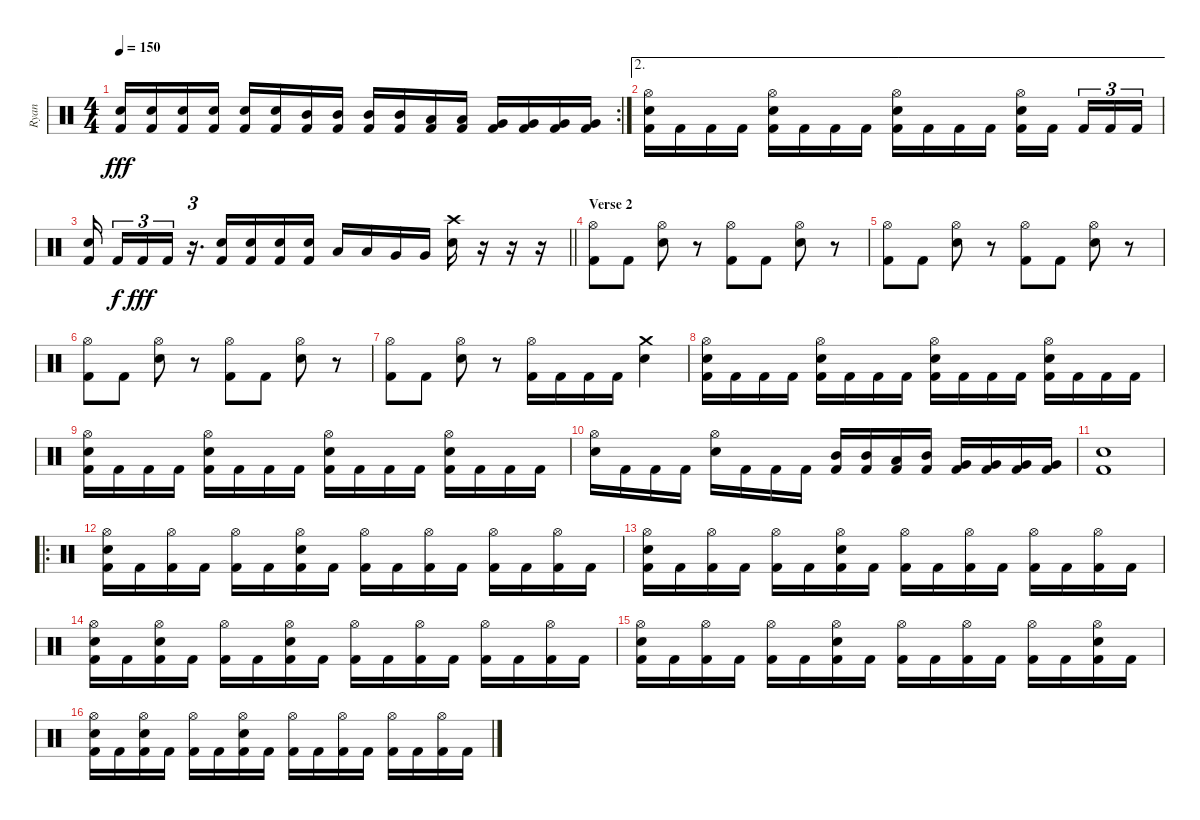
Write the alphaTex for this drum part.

\track ("Ryan" "Ryan") {instrument percussion}
\staff {score}
\articulation defaults
\rc 2
\ts (4 4)
\tempo 150
\clef neutral
\ks c
("Electric Snare (hit)" "Kick (hit) 2").16{dy fff} ("Electric Snare (hit)" "Kick (hit) 2").16 ("Electric Snare (hit)" "Kick (hit) 2").16 ("Electric Snare (hit)" "Kick (hit) 2").16 ("Electric Snare (hit)" "Kick (hit) 2").16 ("Electric Snare (hit)" "Kick (hit) 2").16 ("Mid Tom (hit)" "Kick (hit) 2").16 ("Mid Tom (hit)" "Kick (hit) 2").16 ("Mid Tom (hit)" "Kick (hit) 2").16 ("Mid Tom (hit)" "Kick (hit) 2").16 ("Low Tom (hit)" "Kick (hit) 2").16 ("Low Tom (hit)" "Kick (hit) 2").16 ("Very Low Tom (hit)" "Kick (hit) 2").16 ("Very Low Tom (hit)" "Kick (hit) 2").16 ("Very Low Tom (hit)" "Kick (hit) 2").16 ("Very Low Tom (hit)" "Kick (hit) 2").16 |
\ae 2
("Hi-Hat (open)" "Electric Snare (hit)" "Kick (hit) 2").16 "Kick (hit) 2".16 "Kick (hit) 2".16 "Kick (hit) 2".16 ("Hi-Hat (open)" "Electric Snare (hit)" "Kick (hit) 2").16 "Kick (hit) 2".16 "Kick (hit) 2".16 "Kick (hit) 2".16 ("Hi-Hat (open)" "Electric Snare (hit)" "Kick (hit) 2").16 "Kick (hit) 2".16 "Kick (hit) 2".16 "Kick (hit) 2".16 ("Hi-Hat (open)" "Electric Snare (hit)" "Kick (hit) 2").16 "Kick (hit) 2".16{beam splitsecondary} "Kick (hit) 2".16{tu (3 2)} "Kick (hit) 2".16{tu (3 2)} "Kick (hit) 2".16{tu (3 2)} |
\barLineRight lightlight
("Electric Snare (hit)" "Kick (hit) 2").16{beam splitsecondary} "Kick (hit) 2".16{tu (3 2) dy f} "Kick (hit) 2".16{tu (3 2) dy fff} "Kick (hit) 2".16{tu (3 2)} r.16{d tu (3 2)} ("Electric Snare (hit)" "Kick (hit) 2").16 ("Electric Snare (hit)" "Kick (hit) 2").16 ("Electric Snare (hit)" "Kick (hit) 2").16 ("Electric Snare (hit)" "Kick (hit) 2").16 "Low Tom (hit)".16 "Low Tom (hit)".16 "Very Low Tom (hit)".16 "Very Low Tom (hit)".16 ("Crash high (hit)" "Electric Snare (hit)").16 r.16 r.16 r.16 |
\section ("" "Verse 2")
("Hi-Hat (open)" "Kick (hit) 2").8 "Kick (hit) 2".8 ("Hi-Hat (open)" "Electric Snare (hit)").8 r.8 ("Hi-Hat (open)" "Kick (hit) 2").8 "Kick (hit) 2".8 ("Hi-Hat (open)" "Electric Snare (hit)").8 r.8 |
("Hi-Hat (open)" "Kick (hit) 2").8 "Kick (hit) 2".8 ("Hi-Hat (open)" "Electric Snare (hit)").8 r.8 ("Hi-Hat (open)" "Kick (hit) 2").8 "Kick (hit) 2".8 ("Hi-Hat (open)" "Electric Snare (hit)").8 r.8 |
("Hi-Hat (open)" "Kick (hit) 2").8 "Kick (hit) 2".8 ("Hi-Hat (open)" "Electric Snare (hit)").8 r.8 ("Hi-Hat (open)" "Kick (hit) 2").8 "Kick (hit) 2".8 ("Hi-Hat (open)" "Electric Snare (hit)").8 r.8 |
("Hi-Hat (open)" "Kick (hit) 2").8 "Kick (hit) 2".8 ("Hi-Hat (open)" "Electric Snare (hit)").8 r.8 ("Hi-Hat (open)" "Kick (hit) 2").16 "Kick (hit) 2".16 "Kick (hit) 2".16 "Kick (hit) 2".16 ("Crash medium (hit)" "Electric Snare (hit)").4 |
("Hi-Hat (open)" "Electric Snare (hit)" "Kick (hit) 2").16 "Kick (hit) 2".16 "Kick (hit) 2".16 "Kick (hit) 2".16 ("Hi-Hat (open)" "Electric Snare (hit)" "Kick (hit) 2").16 "Kick (hit) 2".16 "Kick (hit) 2".16 "Kick (hit) 2".16 ("Hi-Hat (open)" "Electric Snare (hit)" "Kick (hit) 2").16 "Kick (hit) 2".16 "Kick (hit) 2".16 "Kick (hit) 2".16 ("Hi-Hat (open)" "Electric Snare (hit)" "Kick (hit) 2").16 "Kick (hit) 2".16 "Kick (hit) 2".16 "Kick (hit) 2".16 |
("Hi-Hat (open)" "Electric Snare (hit)" "Kick (hit) 2").16 "Kick (hit) 2".16 "Kick (hit) 2".16 "Kick (hit) 2".16 ("Hi-Hat (open)" "Electric Snare (hit)" "Kick (hit) 2").16 "Kick (hit) 2".16 "Kick (hit) 2".16 "Kick (hit) 2".16 ("Hi-Hat (open)" "Electric Snare (hit)" "Kick (hit) 2").16 "Kick (hit) 2".16 "Kick (hit) 2".16 "Kick (hit) 2".16 ("Hi-Hat (open)" "Electric Snare (hit)" "Kick (hit) 2").16 "Kick (hit) 2".16 "Kick (hit) 2".16 "Kick (hit) 2".16 |
("Hi-Hat (open)" "Electric Snare (hit)").16 "Kick (hit) 2".16 "Kick (hit) 2".16 "Kick (hit) 2".16 ("Hi-Hat (open)" "Electric Snare (hit)").16 "Kick (hit) 2".16 "Kick (hit) 2".16 "Kick (hit) 2".16 ("Mid Tom (hit)" "Kick (hit) 2").16 ("Mid Tom (hit)" "Kick (hit) 2").16 ("Low Tom (hit)" "Kick (hit) 2").16 ("Mid Tom (hit)" "Kick (hit) 2").16 ("Very Low Tom (hit)" "Kick (hit) 2").16 ("Very Low Tom (hit)" "Kick (hit) 2").16 ("Very Low Tom (hit)" "Kick (hit) 2").16 ("Very Low Tom (hit)" "Kick (hit) 2").16 |
("Electric Snare (hit)" "Kick (hit) 2").1 |
\ro
("Hi-Hat (open)" "Electric Snare (hit)" "Kick (hit) 2").16 "Kick (hit) 2".16 ("Hi-Hat (open)" "Kick (hit) 2").16 "Kick (hit) 2".16 ("Hi-Hat (open)" "Kick (hit) 2").16 "Kick (hit) 2".16 ("Hi-Hat (open)" "Electric Snare (hit)" "Kick (hit) 2").16 "Kick (hit) 2".16 ("Hi-Hat (open)" "Kick (hit) 2").16 "Kick (hit) 2".16 ("Hi-Hat (open)" "Kick (hit) 2").16 "Kick (hit) 2".16 ("Hi-Hat (open)" "Kick (hit) 2").16 "Kick (hit) 2".16 ("Hi-Hat (open)" "Kick (hit) 2").16 "Kick (hit) 2".16 |
("Hi-Hat (open)" "Electric Snare (hit)" "Kick (hit) 2").16 "Kick (hit) 2".16 ("Hi-Hat (open)" "Kick (hit) 2").16 "Kick (hit) 2".16 ("Hi-Hat (open)" "Kick (hit) 2").16 "Kick (hit) 2".16 ("Hi-Hat (open)" "Electric Snare (hit)" "Kick (hit) 2").16 "Kick (hit) 2".16 ("Hi-Hat (open)" "Kick (hit) 2").16 "Kick (hit) 2".16 ("Hi-Hat (open)" "Kick (hit) 2").16 "Kick (hit) 2".16 ("Hi-Hat (open)" "Kick (hit) 2").16 "Kick (hit) 2".16 ("Hi-Hat (open)" "Kick (hit) 2").16 "Kick (hit) 2".16 |
("Hi-Hat (open)" "Electric Snare (hit)" "Kick (hit) 2").16 "Kick (hit) 2".16 ("Hi-Hat (open)" "Electric Snare (hit)" "Kick (hit) 2").16 "Kick (hit) 2".16 ("Hi-Hat (open)" "Kick (hit) 2").16 "Kick (hit) 2".16 ("Hi-Hat (open)" "Electric Snare (hit)" "Kick (hit) 2").16 "Kick (hit) 2".16 ("Hi-Hat (open)" "Kick (hit) 2").16 "Kick (hit) 2".16 ("Hi-Hat (open)" "Kick (hit) 2").16 "Kick (hit) 2".16 ("Hi-Hat (open)" "Kick (hit) 2").16 "Kick (hit) 2".16 ("Hi-Hat (open)" "Kick (hit) 2").16 "Kick (hit) 2".16 |
("Hi-Hat (open)" "Electric Snare (hit)" "Kick (hit) 2").16 "Kick (hit) 2".16 ("Hi-Hat (open)" "Kick (hit) 2").16 "Kick (hit) 2".16 ("Hi-Hat (open)" "Kick (hit) 2").16 "Kick (hit) 2".16 ("Hi-Hat (open)" "Electric Snare (hit)" "Kick (hit) 2").16 "Kick (hit) 2".16 ("Hi-Hat (open)" "Kick (hit) 2").16 "Kick (hit) 2".16 ("Hi-Hat (open)" "Kick (hit) 2").16 "Kick (hit) 2".16 ("Hi-Hat (open)" "Kick (hit) 2").16 "Kick (hit) 2".16 ("Hi-Hat (open)" "Electric Snare (hit)" "Kick (hit) 2").16 "Kick (hit) 2".16 |
("Hi-Hat (open)" "Electric Snare (hit)" "Kick (hit) 2").16 "Kick (hit) 2".16 ("Hi-Hat (open)" "Electric Snare (hit)" "Kick (hit) 2").16 "Kick (hit) 2".16 ("Hi-Hat (open)" "Kick (hit) 2").16 "Kick (hit) 2".16 ("Hi-Hat (open)" "Electric Snare (hit)" "Kick (hit) 2").16 "Kick (hit) 2".16 ("Hi-Hat (open)" "Kick (hit) 2").16 "Kick (hit) 2".16 ("Hi-Hat (open)" "Kick (hit) 2").16 "Kick (hit) 2".16 ("Hi-Hat (open)" "Kick (hit) 2").16 "Kick (hit) 2".16 ("Hi-Hat (open)" "Kick (hit) 2").16 "Kick (hit) 2".16
